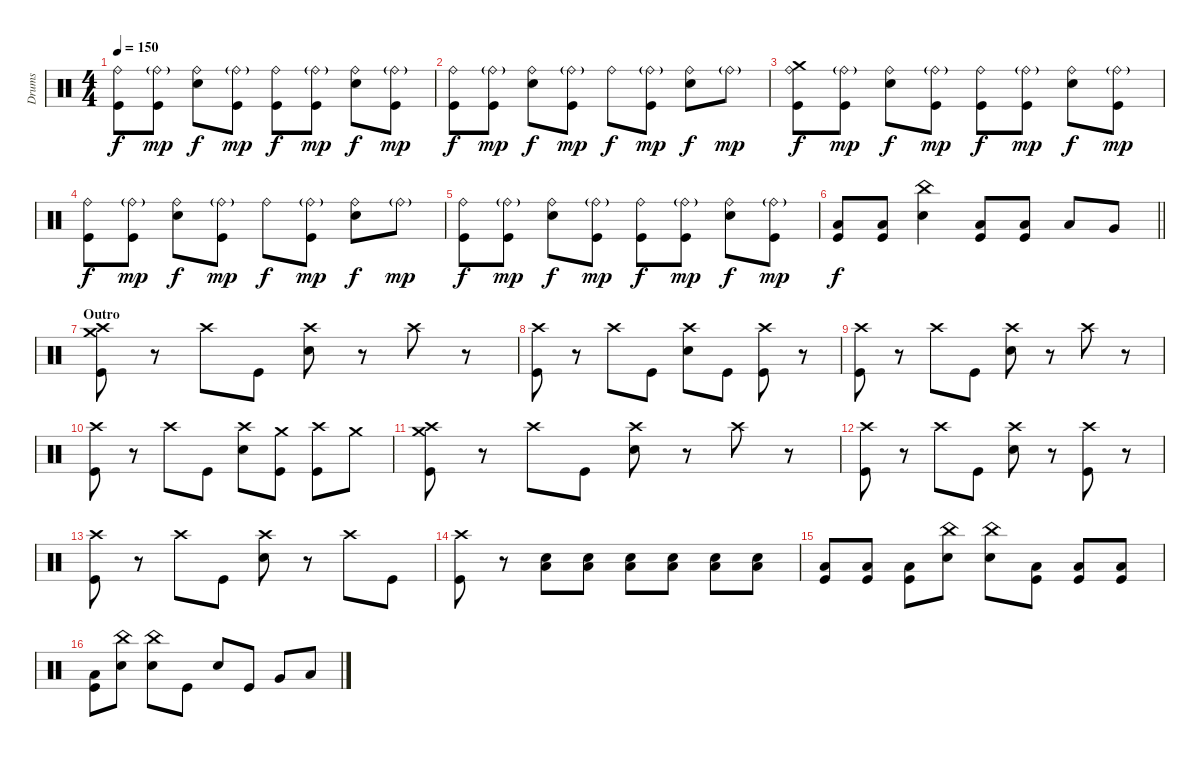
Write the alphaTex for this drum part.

\track ("Drums" "Drums") {instrument percussion}
\staff {score}
\articulation defaults
\ts (4 4)
\tempo 150
\clef neutral
\ks c
("Ride (bell)" "Kick (hit)").8{dy f} ("Ride (bell)"{g} "Kick (hit)").8{dy mp} ("Ride (bell)" "Electric Snare (hit)").8{dy f} ("Ride (bell)"{g} "Kick (hit)").8{dy mp} ("Ride (bell)" "Kick (hit)").8{dy f} ("Ride (bell)"{g} "Kick (hit)").8{dy mp} ("Ride (bell)" "Electric Snare (hit)").8{dy f} ("Ride (bell)"{g} "Kick (hit)").8{dy mp} |
("Ride (bell)" "Kick (hit)").8{dy f} ("Ride (bell)"{g} "Kick (hit)").8{dy mp} ("Ride (bell)" "Electric Snare (hit)").8{dy f} ("Ride (bell)"{g} "Kick (hit)").8{dy mp} "Ride (bell)".8{dy f} ("Ride (bell)"{g} "Kick (hit)").8{dy mp} ("Ride (bell)" "Electric Snare (hit)").8{dy f} "Ride (bell)"{g}.8{dy mp} |
("Crash medium (hit)" "Ride (bell)" "Kick (hit)").8{dy f} ("Ride (bell)"{g} "Kick (hit)").8{dy mp} ("Ride (bell)" "Electric Snare (hit)").8{dy f} ("Ride (bell)"{g} "Kick (hit)").8{dy mp} ("Ride (bell)" "Kick (hit)").8{dy f} ("Ride (bell)"{g} "Kick (hit)").8{dy mp} ("Ride (bell)" "Electric Snare (hit)").8{dy f} ("Ride (bell)"{g} "Kick (hit)").8{dy mp} |
("Ride (bell)" "Kick (hit)").8{dy f} ("Ride (bell)"{g} "Kick (hit)").8{dy mp} ("Ride (bell)" "Electric Snare (hit)").8{dy f} ("Ride (bell)"{g} "Kick (hit)").8{dy mp} "Ride (bell)".8{dy f} ("Ride (bell)"{g} "Kick (hit)").8{dy mp} ("Ride (bell)" "Electric Snare (hit)").8{dy f} "Ride (bell)"{g}.8{dy mp} |
("Ride (bell)" "Kick (hit)").8{dy f} ("Ride (bell)"{g} "Kick (hit)").8{dy mp} ("Ride (bell)" "Electric Snare (hit)").8{dy f} ("Ride (bell)"{g} "Kick (hit)").8{dy mp} ("Ride (bell)" "Kick (hit)").8{dy f} ("Ride (bell)"{g} "Kick (hit)").8{dy mp} ("Ride (bell)" "Electric Snare (hit)").8{dy f} ("Ride (bell)"{g} "Kick (hit)").8{dy mp} |
\barLineRight lightlight
("Low Floor Tom (hit)" "Kick (hit)").8{dy f} ("Low Floor Tom (hit)" "Kick (hit)").8 ("China (hit)" "Electric Snare (hit)").4 ("Low Floor Tom (hit)" "Kick (hit)").8 ("Low Floor Tom (hit)" "Kick (hit)").8 "Low Tom (hit)".8 "Very Low Tom (hit)".8 |
\section ("" "Outro")
("Crash medium (hit)" "Crash high (hit)" "Kick (hit)").8 r.8 "Crash high (hit)".8 "Kick (hit)".8 ("Crash high (hit)" "Electric Snare (hit)").8 r.8 "Crash high (hit)".8 r.8 |
("Crash high (hit)" "Kick (hit)").8 r.8 "Crash high (hit)".8 "Kick (hit)".8 ("Crash high (hit)" "Electric Snare (hit)").8 "Kick (hit)".8 ("Crash high (hit)" "Kick (hit)").8 r.8 |
("Crash high (hit)" "Kick (hit)").8 r.8 "Crash high (hit)".8 "Kick (hit)".8 ("Crash high (hit)" "Electric Snare (hit)").8 r.8 "Crash high (hit)".8 r.8 |
("Crash high (hit)" "Kick (hit)").8 r.8 "Crash high (hit)".8 "Kick (hit)".8 ("Crash high (hit)" "Electric Snare (hit)").8 ("Crash medium (hit)" "Kick (hit)").8 ("Crash high (hit)" "Kick (hit)").8 "Crash medium (hit)".8 |
("Crash medium (hit)" "Crash high (hit)" "Kick (hit)").8 r.8 "Crash high (hit)".8 "Kick (hit)".8 ("Crash high (hit)" "Electric Snare (hit)").8 r.8 "Crash high (hit)".8 r.8 |
("Crash high (hit)" "Kick (hit)").8 r.8 "Crash high (hit)".8 "Kick (hit)".8 ("Crash high (hit)" "Electric Snare (hit)").8 r.8 ("Crash high (hit)" "Kick (hit)").8 r.8 |
("Crash high (hit)" "Kick (hit)").8 r.8 "Crash high (hit)".8 "Kick (hit)".8 ("Crash high (hit)" "Electric Snare (hit)").8 r.8 "Crash high (hit)".8 "Kick (hit)".8 |
("Crash high (hit)" "Kick (hit)").8 r.8{volume 8} ("Electric Snare (hit)" "Low Floor Tom (hit)").8{volume 13} ("Electric Snare (hit)" "Low Floor Tom (hit)").8 ("Electric Snare (hit)" "Low Floor Tom (hit)").8 ("Electric Snare (hit)" "Low Floor Tom (hit)").8 ("Electric Snare (hit)" "Low Floor Tom (hit)").8 ("Electric Snare (hit)" "Low Floor Tom (hit)").8 |
("Low Floor Tom (hit)" "Kick (hit)").8 ("Low Tom (hit)" "Kick (hit)").8 ("Low Floor Tom (hit)" "Kick (hit)").8 ("China (hit)" "Electric Snare (hit)").8 ("China (hit)" "Electric Snare (hit)").8 ("Low Floor Tom (hit)" "Kick (hit)").8 ("Low Tom (hit)" "Kick (hit)").8 ("Low Floor Tom (hit)" "Kick (hit)").8 |
("Low Tom (hit)" "Kick (hit)").8 ("China (hit)" "Electric Snare (hit)").8 ("China (hit)" "Electric Snare (hit)").8 "Kick (hit)".8 "Electric Snare (hit)".8 "Kick (hit)".8 "Very Low Tom (hit)".8 "Low Floor Tom (hit)".8
